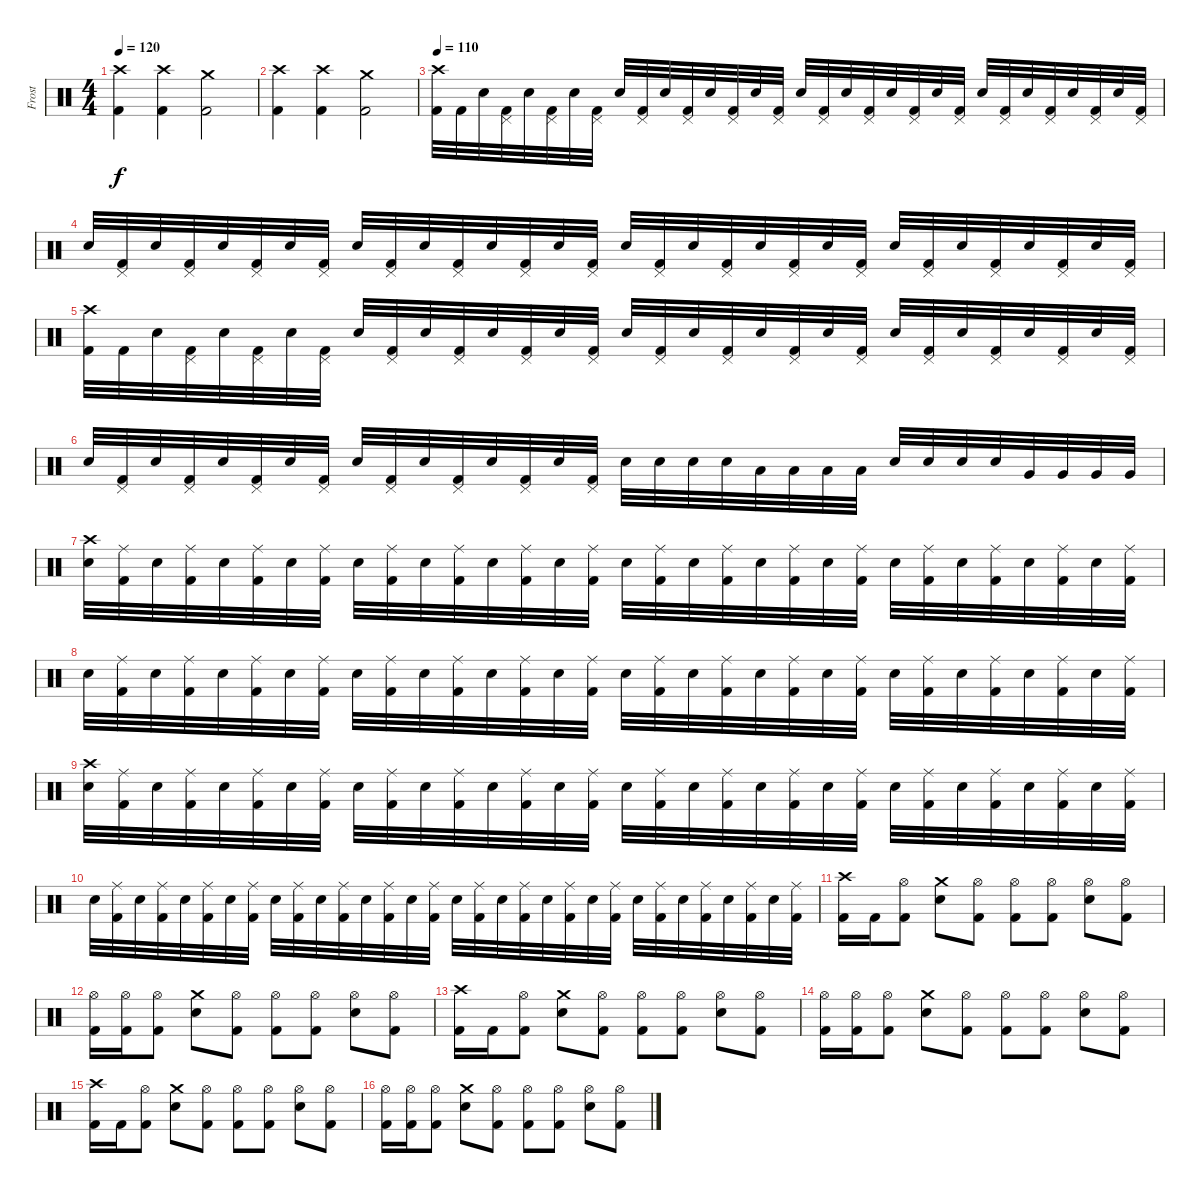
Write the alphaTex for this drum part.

\track ("Frost" "Frost") {instrument percussion}
\staff {score}
\articulation defaults
\ts (4 4)
\tempo 120
\clef neutral
\ks c
("Crash high (hit)" "Kick (hit) 2").4{dy f} ("Crash high (hit)" "Kick (hit) 2").4 ("Crash medium (hit)" "Kick (hit) 2").2 |
("Crash high (hit)" "Kick (hit) 2").4 ("Crash high (hit)" "Kick (hit) 2").4 ("Crash medium (hit)" "Kick (hit) 2").2 |
\tempo 110
("Crash high (hit)" "Kick (hit) 2").32 "Kick (hit) 2".32 "Snare (hit) 2".32 ("Pedal Hi-Hat (hit)" "Kick (hit) 2").32 "Snare (hit) 2".32 ("Pedal Hi-Hat (hit)" "Kick (hit) 2").32 "Snare (hit) 2".32 ("Pedal Hi-Hat (hit)" "Kick (hit) 2").32 "Snare (hit) 2".32 ("Pedal Hi-Hat (hit)" "Kick (hit) 2").32 "Snare (hit) 2".32 ("Pedal Hi-Hat (hit)" "Kick (hit) 2").32 "Snare (hit) 2".32 ("Pedal Hi-Hat (hit)" "Kick (hit) 2").32 "Snare (hit) 2".32 ("Pedal Hi-Hat (hit)" "Kick (hit) 2").32 "Snare (hit) 2".32 ("Pedal Hi-Hat (hit)" "Kick (hit) 2").32 "Snare (hit) 2".32 ("Pedal Hi-Hat (hit)" "Kick (hit) 2").32 "Snare (hit) 2".32 ("Pedal Hi-Hat (hit)" "Kick (hit) 2").32 "Snare (hit) 2".32 ("Pedal Hi-Hat (hit)" "Kick (hit) 2").32 "Snare (hit) 2".32 ("Pedal Hi-Hat (hit)" "Kick (hit) 2").32 "Snare (hit) 2".32 ("Pedal Hi-Hat (hit)" "Kick (hit) 2").32 "Snare (hit) 2".32 ("Pedal Hi-Hat (hit)" "Kick (hit) 2").32 "Snare (hit) 2".32 ("Pedal Hi-Hat (hit)" "Kick (hit) 2").32 |
"Snare (hit) 2".32 ("Pedal Hi-Hat (hit)" "Kick (hit) 2").32 "Snare (hit) 2".32 ("Pedal Hi-Hat (hit)" "Kick (hit) 2").32 "Snare (hit) 2".32 ("Pedal Hi-Hat (hit)" "Kick (hit) 2").32 "Snare (hit) 2".32 ("Pedal Hi-Hat (hit)" "Kick (hit) 2").32 "Snare (hit) 2".32 ("Pedal Hi-Hat (hit)" "Kick (hit) 2").32 "Snare (hit) 2".32 ("Pedal Hi-Hat (hit)" "Kick (hit) 2").32 "Snare (hit) 2".32 ("Pedal Hi-Hat (hit)" "Kick (hit) 2").32 "Snare (hit) 2".32 ("Pedal Hi-Hat (hit)" "Kick (hit) 2").32 "Snare (hit) 2".32 ("Pedal Hi-Hat (hit)" "Kick (hit) 2").32 "Snare (hit) 2".32 ("Pedal Hi-Hat (hit)" "Kick (hit) 2").32 "Snare (hit) 2".32 ("Pedal Hi-Hat (hit)" "Kick (hit) 2").32 "Snare (hit) 2".32 ("Pedal Hi-Hat (hit)" "Kick (hit) 2").32 "Snare (hit) 2".32 ("Pedal Hi-Hat (hit)" "Kick (hit) 2").32 "Snare (hit) 2".32 ("Pedal Hi-Hat (hit)" "Kick (hit) 2").32 "Snare (hit) 2".32 ("Pedal Hi-Hat (hit)" "Kick (hit) 2").32 "Snare (hit) 2".32 ("Pedal Hi-Hat (hit)" "Kick (hit) 2").32 |
("Crash high (hit)" "Kick (hit) 2").32 "Kick (hit) 2".32 "Snare (hit) 2".32 ("Pedal Hi-Hat (hit)" "Kick (hit) 2").32 "Snare (hit) 2".32 ("Pedal Hi-Hat (hit)" "Kick (hit) 2").32 "Snare (hit) 2".32 ("Pedal Hi-Hat (hit)" "Kick (hit) 2").32 "Snare (hit) 2".32 ("Pedal Hi-Hat (hit)" "Kick (hit) 2").32 "Snare (hit) 2".32 ("Pedal Hi-Hat (hit)" "Kick (hit) 2").32 "Snare (hit) 2".32 ("Pedal Hi-Hat (hit)" "Kick (hit) 2").32 "Snare (hit) 2".32 ("Pedal Hi-Hat (hit)" "Kick (hit) 2").32 "Snare (hit) 2".32 ("Pedal Hi-Hat (hit)" "Kick (hit) 2").32 "Snare (hit) 2".32 ("Pedal Hi-Hat (hit)" "Kick (hit) 2").32 "Snare (hit) 2".32 ("Pedal Hi-Hat (hit)" "Kick (hit) 2").32 "Snare (hit) 2".32 ("Pedal Hi-Hat (hit)" "Kick (hit) 2").32 "Snare (hit) 2".32 ("Pedal Hi-Hat (hit)" "Kick (hit) 2").32 "Snare (hit) 2".32 ("Pedal Hi-Hat (hit)" "Kick (hit) 2").32 "Snare (hit) 2".32 ("Pedal Hi-Hat (hit)" "Kick (hit) 2").32 "Snare (hit) 2".32 ("Pedal Hi-Hat (hit)" "Kick (hit) 2").32 |
"Snare (hit) 2".32 ("Pedal Hi-Hat (hit)" "Kick (hit) 2").32 "Snare (hit) 2".32 ("Pedal Hi-Hat (hit)" "Kick (hit) 2").32 "Snare (hit) 2".32 ("Pedal Hi-Hat (hit)" "Kick (hit) 2").32 "Snare (hit) 2".32 ("Pedal Hi-Hat (hit)" "Kick (hit) 2").32 "Snare (hit) 2".32 ("Pedal Hi-Hat (hit)" "Kick (hit) 2").32 "Snare (hit) 2".32 ("Pedal Hi-Hat (hit)" "Kick (hit) 2").32 "Snare (hit) 2".32 ("Pedal Hi-Hat (hit)" "Kick (hit) 2").32 "Snare (hit) 2".32 ("Pedal Hi-Hat (hit)" "Kick (hit) 2").32 "Snare (hit) 2".32 "Snare (hit) 2".32 "Snare (hit) 2".32 "Snare (hit) 2".32 "Low Tom (hit)".32 "Low Tom (hit)".32 "Low Tom (hit)".32 "Low Tom (hit)".32 "Snare (hit) 2".32 "Snare (hit) 2".32 "Snare (hit) 2".32 "Snare (hit) 2".32 "Very Low Tom (hit)".32 "Very Low Tom (hit)".32 "Very Low Tom (hit)".32 "Very Low Tom (hit)".32 |
("Crash high (hit)" "Snare (hit) 2").32 ("Ride (middle)" "Kick (hit) 2").32 "Snare (hit) 2".32 ("Ride (middle)" "Kick (hit) 2").32 "Snare (hit) 2".32 ("Ride (middle)" "Kick (hit) 2").32 "Snare (hit) 2".32 ("Ride (middle)" "Kick (hit) 2").32 "Snare (hit) 2".32 ("Ride (middle)" "Kick (hit) 2").32 "Snare (hit) 2".32 ("Ride (middle)" "Kick (hit) 2").32 "Snare (hit) 2".32 ("Ride (middle)" "Kick (hit) 2").32 "Snare (hit) 2".32 ("Ride (middle)" "Kick (hit) 2").32 "Snare (hit) 2".32 ("Ride (middle)" "Kick (hit) 2").32 "Snare (hit) 2".32 ("Ride (middle)" "Kick (hit) 2").32 "Snare (hit) 2".32 ("Ride (middle)" "Kick (hit) 2").32 "Snare (hit) 2".32 ("Ride (middle)" "Kick (hit) 2").32 "Snare (hit) 2".32 ("Ride (middle)" "Kick (hit) 2").32 "Snare (hit) 2".32 ("Ride (middle)" "Kick (hit) 2").32 "Snare (hit) 2".32 ("Ride (middle)" "Kick (hit) 2").32 "Snare (hit) 2".32 ("Ride (middle)" "Kick (hit) 2").32 |
"Snare (hit) 2".32 ("Ride (middle)" "Kick (hit) 2").32 "Snare (hit) 2".32 ("Ride (middle)" "Kick (hit) 2").32 "Snare (hit) 2".32 ("Ride (middle)" "Kick (hit) 2").32 "Snare (hit) 2".32 ("Ride (middle)" "Kick (hit) 2").32 "Snare (hit) 2".32 ("Ride (middle)" "Kick (hit) 2").32 "Snare (hit) 2".32 ("Ride (middle)" "Kick (hit) 2").32 "Snare (hit) 2".32 ("Ride (middle)" "Kick (hit) 2").32 "Snare (hit) 2".32 ("Ride (middle)" "Kick (hit) 2").32 "Snare (hit) 2".32 ("Ride (middle)" "Kick (hit) 2").32 "Snare (hit) 2".32 ("Ride (middle)" "Kick (hit) 2").32 "Snare (hit) 2".32 ("Ride (middle)" "Kick (hit) 2").32 "Snare (hit) 2".32 ("Ride (middle)" "Kick (hit) 2").32 "Snare (hit) 2".32 ("Ride (middle)" "Kick (hit) 2").32 "Snare (hit) 2".32 ("Ride (middle)" "Kick (hit) 2").32 "Snare (hit) 2".32 ("Ride (middle)" "Kick (hit) 2").32 "Snare (hit) 2".32 ("Ride (middle)" "Kick (hit) 2").32 |
("Crash high (hit)" "Snare (hit) 2").32 ("Ride (middle)" "Kick (hit) 2").32 "Snare (hit) 2".32 ("Ride (middle)" "Kick (hit) 2").32 "Snare (hit) 2".32 ("Ride (middle)" "Kick (hit) 2").32 "Snare (hit) 2".32 ("Ride (middle)" "Kick (hit) 2").32 "Snare (hit) 2".32 ("Ride (middle)" "Kick (hit) 2").32 "Snare (hit) 2".32 ("Ride (middle)" "Kick (hit) 2").32 "Snare (hit) 2".32 ("Ride (middle)" "Kick (hit) 2").32 "Snare (hit) 2".32 ("Ride (middle)" "Kick (hit) 2").32 "Snare (hit) 2".32 ("Ride (middle)" "Kick (hit) 2").32 "Snare (hit) 2".32 ("Ride (middle)" "Kick (hit) 2").32 "Snare (hit) 2".32 ("Ride (middle)" "Kick (hit) 2").32 "Snare (hit) 2".32 ("Ride (middle)" "Kick (hit) 2").32 "Snare (hit) 2".32 ("Ride (middle)" "Kick (hit) 2").32 "Snare (hit) 2".32 ("Ride (middle)" "Kick (hit) 2").32 "Snare (hit) 2".32 ("Ride (middle)" "Kick (hit) 2").32 "Snare (hit) 2".32 ("Ride (middle)" "Kick (hit) 2").32 |
"Snare (hit) 2".32 ("Ride (middle)" "Kick (hit) 2").32 "Snare (hit) 2".32 ("Ride (middle)" "Kick (hit) 2").32 "Snare (hit) 2".32 ("Ride (middle)" "Kick (hit) 2").32 "Snare (hit) 2".32 ("Ride (middle)" "Kick (hit) 2").32 "Snare (hit) 2".32 ("Ride (middle)" "Kick (hit) 2").32 "Snare (hit) 2".32 ("Ride (middle)" "Kick (hit) 2").32 "Snare (hit) 2".32 ("Ride (middle)" "Kick (hit) 2").32 "Snare (hit) 2".32 ("Ride (middle)" "Kick (hit) 2").32 "Snare (hit) 2".32 ("Ride (middle)" "Kick (hit) 2").32 "Snare (hit) 2".32 ("Ride (middle)" "Kick (hit) 2").32 "Snare (hit) 2".32 ("Ride (middle)" "Kick (hit) 2").32 "Snare (hit) 2".32 ("Ride (middle)" "Kick (hit) 2").32 "Snare (hit) 2".32 ("Ride (middle)" "Kick (hit) 2").32 "Snare (hit) 2".32 ("Ride (middle)" "Kick (hit) 2").32 "Snare (hit) 2".32 ("Ride (middle)" "Kick (hit) 2").32 "Snare (hit) 2".32 ("Ride (middle)" "Kick (hit) 2").32 |
("Crash high (hit)" "Kick (hit) 2").16 "Kick (hit) 2".16 ("Hi-Hat (open)" "Kick (hit) 2").8 ("Crash medium (hit)" "Snare (hit) 2").8 ("Hi-Hat (open)" "Kick (hit) 2").8 ("Hi-Hat (open)" "Kick (hit) 2").8 ("Hi-Hat (open)" "Kick (hit) 2").8 ("Hi-Hat (open)" "Snare (hit) 2").8 ("Hi-Hat (open)" "Kick (hit) 2").8 |
("Hi-Hat (open)" "Kick (hit) 2").16 ("Hi-Hat (open)" "Kick (hit) 2").16 ("Hi-Hat (open)" "Kick (hit) 2").8 ("Crash medium (hit)" "Snare (hit) 2").8 ("Hi-Hat (open)" "Kick (hit) 2").8 ("Hi-Hat (open)" "Kick (hit) 2").8 ("Hi-Hat (open)" "Kick (hit) 2").8 ("Hi-Hat (open)" "Snare (hit) 2").8 ("Hi-Hat (open)" "Kick (hit) 2").8 |
("Crash high (hit)" "Kick (hit) 2").16 "Kick (hit) 2".16 ("Hi-Hat (open)" "Kick (hit) 2").8 ("Crash medium (hit)" "Snare (hit) 2").8 ("Hi-Hat (open)" "Kick (hit) 2").8 ("Hi-Hat (open)" "Kick (hit) 2").8 ("Hi-Hat (open)" "Kick (hit) 2").8 ("Hi-Hat (open)" "Snare (hit) 2").8 ("Hi-Hat (open)" "Kick (hit) 2").8 |
("Hi-Hat (open)" "Kick (hit) 2").16 ("Hi-Hat (open)" "Kick (hit) 2").16 ("Hi-Hat (open)" "Kick (hit) 2").8 ("Crash medium (hit)" "Snare (hit) 2").8 ("Hi-Hat (open)" "Kick (hit) 2").8 ("Hi-Hat (open)" "Kick (hit) 2").8 ("Hi-Hat (open)" "Kick (hit) 2").8 ("Hi-Hat (open)" "Snare (hit) 2").8 ("Hi-Hat (open)" "Kick (hit) 2").8 |
("Crash high (hit)" "Kick (hit) 2").16 "Kick (hit) 2".16 ("Hi-Hat (open)" "Kick (hit) 2").8 ("Crash medium (hit)" "Snare (hit) 2").8 ("Hi-Hat (open)" "Kick (hit) 2").8 ("Hi-Hat (open)" "Kick (hit) 2").8 ("Hi-Hat (open)" "Kick (hit) 2").8 ("Hi-Hat (open)" "Snare (hit) 2").8 ("Hi-Hat (open)" "Kick (hit) 2").8 |
("Hi-Hat (open)" "Kick (hit) 2").16 ("Hi-Hat (open)" "Kick (hit) 2").16 ("Hi-Hat (open)" "Kick (hit) 2").8 ("Crash medium (hit)" "Snare (hit) 2").8 ("Hi-Hat (open)" "Kick (hit) 2").8 ("Hi-Hat (open)" "Kick (hit) 2").8 ("Hi-Hat (open)" "Kick (hit) 2").8 ("Hi-Hat (open)" "Snare (hit) 2").8 ("Hi-Hat (open)" "Kick (hit) 2").8
